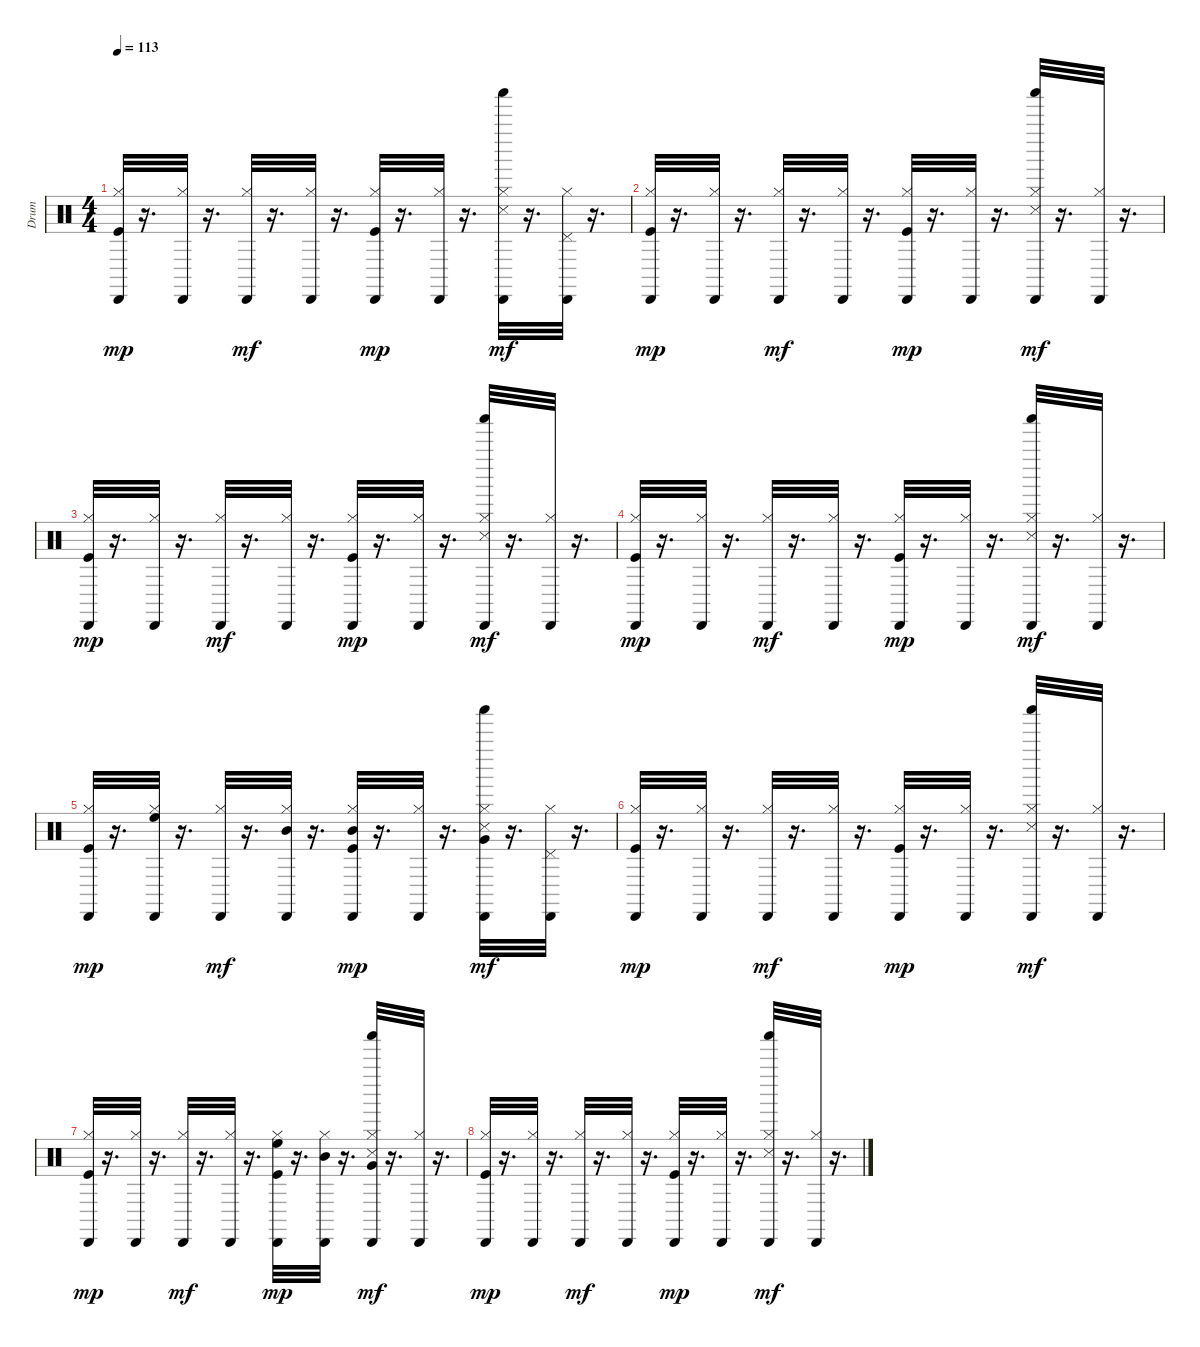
\track ("Drum" "Drum") {instrument percussion}
\staff {score}
\articulation defaults
\ts (4 4)
\tempo 113
\clef neutral
\ks c
("Hi-Hat (closed)" "Kick (hit)" "Cabasa (hit)").32{dy mp} r.16{d} ("Hi-Hat (closed)" "Cabasa (hit)").32 r.16{d} ("Hi-Hat (closed)" "Cabasa (hit)").32{dy mf} r.16{d} ("Hi-Hat (closed)" "Cabasa (hit)").32 r.16{d} ("Hi-Hat (closed)" "Kick (hit)" "Cabasa (hit)").32{dy mp} r.16{d} ("Hi-Hat (closed)" "Cabasa (hit)").32 r.16{d} ("Hi-Hat (closed)" "Shaker (hit)" "Snare (side stick) 3" "Cabasa (hit)").32{dy mf} r.16{d} ("Hi-Hat (closed)" "Pedal Hi-Hat (hit)" "Cabasa (hit)").32 r.16{d} |
("Hi-Hat (closed)" "Kick (hit)" "Cabasa (hit)").32{dy mp} r.16{d} ("Hi-Hat (closed)" "Cabasa (hit)").32 r.16{d} ("Hi-Hat (closed)" "Cabasa (hit)").32{dy mf} r.16{d} ("Hi-Hat (closed)" "Cabasa (hit)").32 r.16{d} ("Hi-Hat (closed)" "Kick (hit)" "Cabasa (hit)").32{dy mp} r.16{d} ("Hi-Hat (closed)" "Cabasa (hit)").32 r.16{d} ("Hi-Hat (closed)" "Shaker (hit)" "Snare (side stick) 3" "Cabasa (hit)").32{dy mf} r.16{d} ("Hi-Hat (closed)" "Cabasa (hit)").32 r.16{d} |
("Hi-Hat (closed)" "Kick (hit)" "Cabasa (hit)").32{dy mp} r.16{d} ("Hi-Hat (closed)" "Cabasa (hit)").32 r.16{d} ("Hi-Hat (closed)" "Cabasa (hit)").32{dy mf} r.16{d} ("Hi-Hat (closed)" "Cabasa (hit)").32 r.16{d} ("Hi-Hat (closed)" "Kick (hit)" "Cabasa (hit)").32{dy mp} r.16{d} ("Hi-Hat (closed)" "Cabasa (hit)").32 r.16{d} ("Hi-Hat (closed)" "Shaker (hit)" "Snare (side stick) 3" "Cabasa (hit)").32{dy mf} r.16{d} ("Hi-Hat (closed)" "Cabasa (hit)").32 r.16{d} |
("Hi-Hat (closed)" "Kick (hit)" "Cabasa (hit)").32{dy mp} r.16{d} ("Hi-Hat (closed)" "Cabasa (hit)").32 r.16{d} ("Hi-Hat (closed)" "Cabasa (hit)").32{dy mf} r.16{d} ("Hi-Hat (closed)" "Cabasa (hit)").32 r.16{d} ("Hi-Hat (closed)" "Kick (hit)" "Cabasa (hit)").32{dy mp} r.16{d} ("Hi-Hat (closed)" "Cabasa (hit)").32 r.16{d} ("Hi-Hat (closed)" "Shaker (hit)" "Snare (side stick) 3" "Cabasa (hit)").32{dy mf} r.16{d} ("Hi-Hat (closed)" "Cabasa (hit)").32 r.16{d} |
("Hi-Hat (closed)" "Kick (hit)" "Cabasa (hit)").32{dy mp} r.16{d} ("Hi-Hat (closed)" "High Floor Tom (hit)" "Cabasa (hit)").32 r.16{d} ("Hi-Hat (closed)" "Cabasa (hit)").32{dy mf} r.16{d} ("Hi-Hat (closed)" "Mid Tom (hit)" "Cabasa (hit)").32 r.16{d} ("Hi-Hat (closed)" "Mid Tom (hit)" "Kick (hit)" "Cabasa (hit)").32{dy mp} r.16{d} ("Hi-Hat (closed)" "Cabasa (hit)").32 r.16{d} ("Hi-Hat (closed)" "Very Low Tom (hit)" "Shaker (hit)" "Snare (side stick) 3" "Cabasa (hit)").32{dy mf} r.16{d} ("Hi-Hat (closed)" "Pedal Hi-Hat (hit)" "Cabasa (hit)").32 r.16{d} |
("Hi-Hat (closed)" "Kick (hit)" "Cabasa (hit)").32{dy mp} r.16{d} ("Hi-Hat (closed)" "Cabasa (hit)").32 r.16{d} ("Hi-Hat (closed)" "Cabasa (hit)").32{dy mf} r.16{d} ("Hi-Hat (closed)" "Cabasa (hit)").32 r.16{d} ("Hi-Hat (closed)" "Kick (hit)" "Cabasa (hit)").32{dy mp} r.16{d} ("Hi-Hat (closed)" "Cabasa (hit)").32 r.16{d} ("Hi-Hat (closed)" "Shaker (hit)" "Snare (side stick) 3" "Cabasa (hit)").32{dy mf} r.16{d} ("Hi-Hat (closed)" "Cabasa (hit)").32 r.16{d} |
("Hi-Hat (closed)" "Kick (hit)" "Cabasa (hit)").32{dy mp} r.16{d} ("Hi-Hat (closed)" "Cabasa (hit)").32 r.16{d} ("Hi-Hat (closed)" "Cabasa (hit)").32{dy mf} r.16{d} ("Hi-Hat (closed)" "Cabasa (hit)").32 r.16{d} ("Hi-Hat (closed)" "High Floor Tom (hit)" "Kick (hit)" "Cabasa (hit)").32{dy mp} r.16{d} ("Hi-Hat (closed)" "Mid Tom (hit)" "Cabasa (hit)").32 r.16{d} ("Hi-Hat (closed)" "Very Low Tom (hit)" "Shaker (hit)" "Snare (side stick) 3" "Cabasa (hit)").32{dy mf} r.16{d} ("Hi-Hat (closed)" "Cabasa (hit)").32 r.16{d} |
("Hi-Hat (closed)" "Kick (hit)" "Cabasa (hit)").32{dy mp} r.16{d} ("Hi-Hat (closed)" "Cabasa (hit)").32 r.16{d} ("Hi-Hat (closed)" "Cabasa (hit)").32{dy mf} r.16{d} ("Hi-Hat (closed)" "Cabasa (hit)").32 r.16{d} ("Hi-Hat (closed)" "Kick (hit)" "Cabasa (hit)").32{dy mp} r.16{d} ("Hi-Hat (closed)" "Cabasa (hit)").32 r.16{d} ("Hi-Hat (closed)" "Shaker (hit)" "Snare (side stick) 3" "Cabasa (hit)").32{dy mf} r.16{d} ("Hi-Hat (closed)" "Cabasa (hit)").32 r.16{d}
